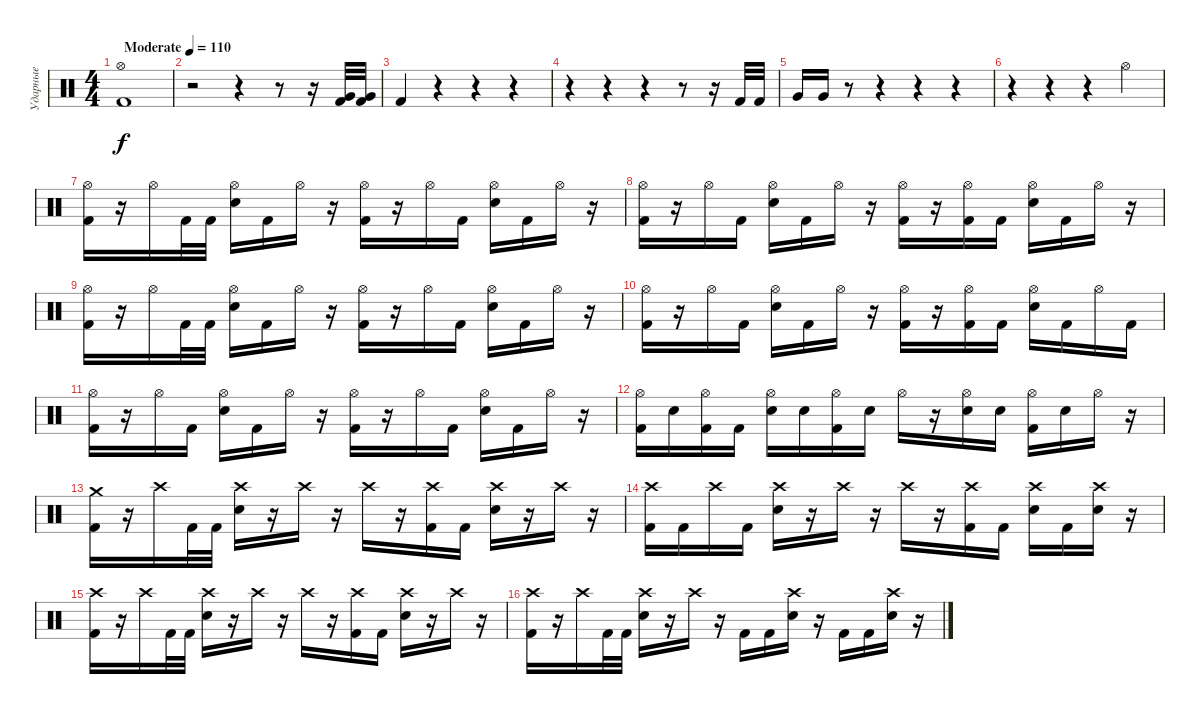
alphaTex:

\track ("Ударные" "Ударные") {instrument percussion}
\staff {score}
\articulation defaults
\ts (4 4)
\tempo (110 "Moderate")
\clef neutral
\ks c
("Hi-Hat (open)" "Kick (hit) 2").1{dy f} |
r.2 r.4 r.8 r.16 ("Very Low Tom (hit)" "Kick (hit) 2").32 ("Very Low Tom (hit)" "Kick (hit) 2").32 |
"Kick (hit) 2".4 r.4 r.4 r.4 |
r.4 r.4 r.4 r.8 r.16 "Kick (hit) 2".32 "Kick (hit) 2".32 |
"Very Low Tom (hit)".16 "Very Low Tom (hit)".16 r.8 r.4 r.4 r.4 |
r.4 r.4 r.4 "Hi-Hat (open)".4 |
("Hi-Hat (open)" "Kick (hit) 2").16 r.16 "Hi-Hat (open)".16 "Kick (hit) 2".32 "Kick (hit) 2".32 ("Hi-Hat (open)" "Electric Snare (hit)").16 "Kick (hit) 2".16 "Hi-Hat (open)".16 r.16 ("Hi-Hat (open)" "Kick (hit) 2").16 r.16 "Hi-Hat (open)".16 "Kick (hit) 2".16 ("Hi-Hat (open)" "Electric Snare (hit)").16 "Kick (hit) 2".16 "Hi-Hat (open)".16 r.16 |
("Hi-Hat (open)" "Kick (hit) 2").16 r.16 "Hi-Hat (open)".16 "Kick (hit) 2".16 ("Hi-Hat (open)" "Electric Snare (hit)").16 "Kick (hit) 2".16 "Hi-Hat (open)".16 r.16 ("Hi-Hat (open)" "Kick (hit) 2").16 r.16 ("Hi-Hat (open)" "Kick (hit) 2").16 "Kick (hit) 2".16 ("Hi-Hat (open)" "Electric Snare (hit)").16 "Kick (hit) 2".16 "Hi-Hat (open)".16 r.16 |
("Hi-Hat (open)" "Kick (hit) 2").16 r.16 "Hi-Hat (open)".16 "Kick (hit) 2".32 "Kick (hit) 2".32 ("Hi-Hat (open)" "Electric Snare (hit)").16 "Kick (hit) 2".16 "Hi-Hat (open)".16 r.16 ("Hi-Hat (open)" "Kick (hit) 2").16 r.16 "Hi-Hat (open)".16 "Kick (hit) 2".16 ("Hi-Hat (open)" "Electric Snare (hit)").16 "Kick (hit) 2".16 "Hi-Hat (open)".16 r.16 |
("Hi-Hat (open)" "Kick (hit) 2").16 r.16 "Hi-Hat (open)".16 "Kick (hit) 2".16 ("Hi-Hat (open)" "Electric Snare (hit)").16 "Kick (hit) 2".16 "Hi-Hat (open)".16 r.16 ("Hi-Hat (open)" "Kick (hit) 2").16 r.16 ("Hi-Hat (open)" "Kick (hit) 2").16 "Kick (hit) 2".16 ("Hi-Hat (open)" "Electric Snare (hit)").16 "Kick (hit) 2".16 "Hi-Hat (open)".16 "Kick (hit) 2".16 |
("Hi-Hat (open)" "Kick (hit) 2").16 r.16 "Hi-Hat (open)".16 "Kick (hit) 2".16 ("Hi-Hat (open)" "Electric Snare (hit)").16 "Kick (hit) 2".16 "Hi-Hat (open)".16 r.16 ("Hi-Hat (open)" "Kick (hit) 2").16 r.16 "Hi-Hat (open)".16 "Kick (hit) 2".16 ("Hi-Hat (open)" "Electric Snare (hit)").16 "Kick (hit) 2".16 "Hi-Hat (open)".16 r.16 |
("Hi-Hat (open)" "Kick (hit) 2").16 "Electric Snare (hit)".16 ("Hi-Hat (open)" "Kick (hit) 2").16 "Kick (hit) 2".16 ("Hi-Hat (open)" "Electric Snare (hit)").16 "Electric Snare (hit)".16 ("Hi-Hat (open)" "Kick (hit) 2").16 "Electric Snare (hit)".16 "Hi-Hat (open)".16 r.16 ("Hi-Hat (open)" "Electric Snare (hit)").16 "Electric Snare (hit)".16 ("Hi-Hat (open)" "Kick (hit) 2").16 "Electric Snare (hit)".16 "Hi-Hat (open)".16 r.16 |
("Crash medium (hit)" "Kick (hit) 2").16 r.16 "Crash high (hit)".16 "Kick (hit) 2".32 "Kick (hit) 2".32 ("Crash high (hit)" "Electric Snare (hit)").16 r.16 "Crash high (hit)".16 r.16 "Crash high (hit)".16 r.16 ("Crash high (hit)" "Kick (hit) 2").16 "Kick (hit) 2".16 ("Crash high (hit)" "Electric Snare (hit)").16 r.16 "Crash high (hit)".16 r.16 |
("Crash high (hit)" "Kick (hit) 2").16 "Kick (hit) 2".16 "Crash high (hit)".16 "Kick (hit) 2".16 ("Crash high (hit)" "Electric Snare (hit)").16 r.16 "Crash high (hit)".16 r.16 "Crash high (hit)".16 r.16 ("Crash high (hit)" "Kick (hit) 2").16 "Kick (hit) 2".16 ("Crash high (hit)" "Electric Snare (hit)").16 "Kick (hit) 2".16 ("Crash high (hit)" "Electric Snare (hit)").16 r.16 |
("Crash high (hit)" "Kick (hit) 2").16 r.16 "Crash high (hit)".16 "Kick (hit) 2".32 "Kick (hit) 2".32 ("Crash high (hit)" "Electric Snare (hit)").16 r.16 "Crash high (hit)".16 r.16 "Crash high (hit)".16 r.16 ("Crash high (hit)" "Kick (hit) 2").16 "Kick (hit) 2".16 ("Crash high (hit)" "Electric Snare (hit)").16 r.16 "Crash high (hit)".16 r.16 |
("Crash high (hit)" "Kick (hit) 2").16 r.16 "Crash high (hit)".16 "Kick (hit) 2".32 "Kick (hit) 2".32 ("Crash high (hit)" "Electric Snare (hit)").16 r.16 "Crash high (hit)".16 r.16 "Kick (hit) 2".16 "Kick (hit) 2".16 ("Crash high (hit)" "Electric Snare (hit)").16 r.16 "Kick (hit) 2".16 "Kick (hit) 2".16 ("Crash high (hit)" "Electric Snare (hit)").16 r.16
